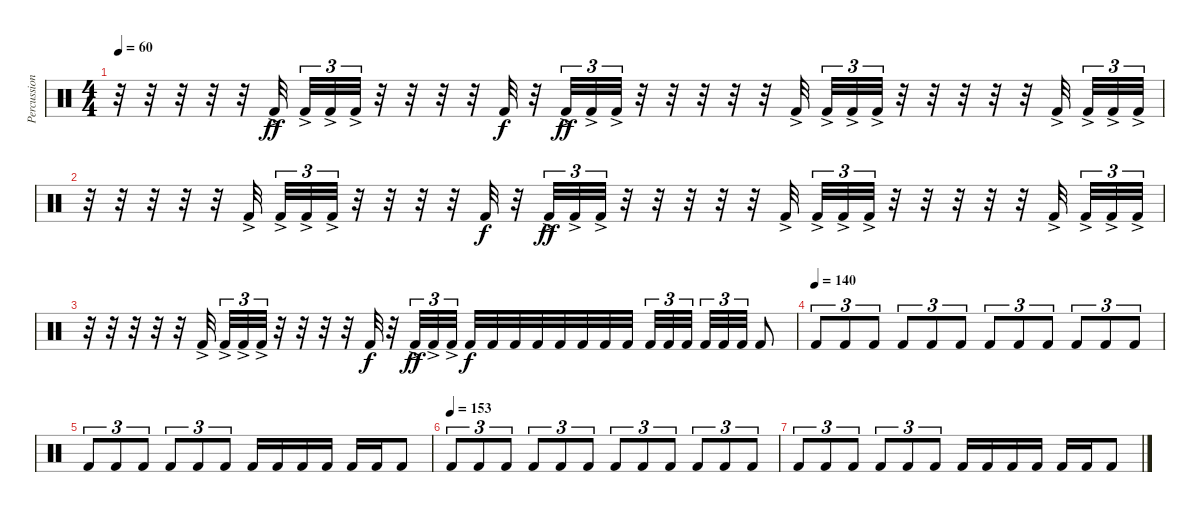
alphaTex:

\track ("Percussion" "Percussion") {instrument percussion}
\staff {score}
\articulation defaults
\ts (4 4)
\tempo 60
\clef neutral
\ks c
r.32{dy ff} r.32 r.32 r.32 r.32 "Kick (hit) 2"{ac}.32{beam splitsecondary} "Kick (hit) 2"{ac}.32{tu (3 2)} "Kick (hit) 2"{ac}.32{tu (3 2)} "Kick (hit) 2"{ac}.32{tu (3 2)} r.32 r.32 r.32 r.32 "Kick (hit) 2".32{dy f} r.32 "Kick (hit) 2"{ac}.32{tu (3 2) dy ff} "Kick (hit) 2"{ac}.32{tu (3 2)} "Kick (hit) 2"{ac}.32{tu (3 2)} r.32 r.32 r.32 r.32 r.32 "Kick (hit) 2"{ac}.32{beam splitsecondary} "Kick (hit) 2"{ac}.32{tu (3 2)} "Kick (hit) 2"{ac}.32{tu (3 2)} "Kick (hit) 2"{ac}.32{tu (3 2)} r.32 r.32 r.32 r.32 r.32 "Kick (hit) 2"{ac}.32{beam splitsecondary} "Kick (hit) 2"{ac}.32{tu (3 2)} "Kick (hit) 2"{ac}.32{tu (3 2)} "Kick (hit) 2"{ac}.32{tu (3 2)} |
r.32 r.32 r.32 r.32 r.32 "Kick (hit) 2"{ac}.32{beam splitsecondary} "Kick (hit) 2"{ac}.32{tu (3 2)} "Kick (hit) 2"{ac}.32{tu (3 2)} "Kick (hit) 2"{ac}.32{tu (3 2)} r.32 r.32 r.32 r.32 "Kick (hit) 2".32{dy f} r.32 "Kick (hit) 2"{ac}.32{tu (3 2) dy ff} "Kick (hit) 2"{ac}.32{tu (3 2)} "Kick (hit) 2"{ac}.32{tu (3 2)} r.32 r.32 r.32 r.32 r.32 "Kick (hit) 2"{ac}.32{beam splitsecondary} "Kick (hit) 2"{ac}.32{tu (3 2)} "Kick (hit) 2"{ac}.32{tu (3 2)} "Kick (hit) 2"{ac}.32{tu (3 2)} r.32 r.32 r.32 r.32 r.32 "Kick (hit) 2"{ac}.32{beam splitsecondary} "Kick (hit) 2"{ac}.32{tu (3 2)} "Kick (hit) 2"{ac}.32{tu (3 2)} "Kick (hit) 2"{ac}.32{tu (3 2)} |
r.32 r.32 r.32 r.32 r.32 "Kick (hit) 2"{ac}.32{beam splitsecondary} "Kick (hit) 2"{ac}.32{tu (3 2)} "Kick (hit) 2"{ac}.32{tu (3 2)} "Kick (hit) 2"{ac}.32{tu (3 2)} r.32 r.32 r.32 r.32 "Kick (hit) 2".32{dy f} r.32 "Kick (hit) 2"{ac}.32{tu (3 2) dy ff} "Kick (hit) 2"{ac}.32{tu (3 2)} "Kick (hit) 2"{ac}.32{tu (3 2)} "Kick (hit) 2".32{dy f} "Kick (hit) 2".32 "Kick (hit) 2".32 "Kick (hit) 2".32 "Kick (hit) 2".32 "Kick (hit) 2".32 "Kick (hit) 2".32 "Kick (hit) 2".32 "Kick (hit) 2".32{tu (3 2)} "Kick (hit) 2".32{tu (3 2)} "Kick (hit) 2".32{tu (3 2) beam splitsecondary} "Kick (hit) 2".32{tu (3 2)} "Kick (hit) 2".32{tu (3 2)} "Kick (hit) 2".32{tu (3 2)} "Kick (hit) 2".8 |
\tempo (140)
"Kick (hit) 2".8{tu (3 2)} "Kick (hit) 2".8{tu (3 2)} "Kick (hit) 2".8{tu (3 2)} "Kick (hit) 2".8{tu (3 2)} "Kick (hit) 2".8{tu (3 2)} "Kick (hit) 2".8{tu (3 2)} "Kick (hit) 2".8{tu (3 2)} "Kick (hit) 2".8{tu (3 2)} "Kick (hit) 2".8{tu (3 2)} "Kick (hit) 2".8{tu (3 2)} "Kick (hit) 2".8{tu (3 2)} "Kick (hit) 2".8{tu (3 2)} |
"Kick (hit) 2".8{tu (3 2)} "Kick (hit) 2".8{tu (3 2)} "Kick (hit) 2".8{tu (3 2)} "Kick (hit) 2".8{tu (3 2)} "Kick (hit) 2".8{tu (3 2)} "Kick (hit) 2".8{tu (3 2)} "Kick (hit) 2".16 "Kick (hit) 2".16 "Kick (hit) 2".16 "Kick (hit) 2".16 "Kick (hit) 2".16 "Kick (hit) 2".16 "Kick (hit) 2".8 |
\tempo (153)
"Kick (hit) 2".8{tu (3 2)} "Kick (hit) 2".8{tu (3 2)} "Kick (hit) 2".8{tu (3 2)} "Kick (hit) 2".8{tu (3 2)} "Kick (hit) 2".8{tu (3 2)} "Kick (hit) 2".8{tu (3 2)} "Kick (hit) 2".8{tu (3 2)} "Kick (hit) 2".8{tu (3 2)} "Kick (hit) 2".8{tu (3 2)} "Kick (hit) 2".8{tu (3 2)} "Kick (hit) 2".8{tu (3 2)} "Kick (hit) 2".8{tu (3 2)} |
"Kick (hit) 2".8{tu (3 2)} "Kick (hit) 2".8{tu (3 2)} "Kick (hit) 2".8{tu (3 2)} "Kick (hit) 2".8{tu (3 2)} "Kick (hit) 2".8{tu (3 2)} "Kick (hit) 2".8{tu (3 2)} "Kick (hit) 2".16 "Kick (hit) 2".16 "Kick (hit) 2".16 "Kick (hit) 2".16 "Kick (hit) 2".16 "Kick (hit) 2".16 "Kick (hit) 2".8
